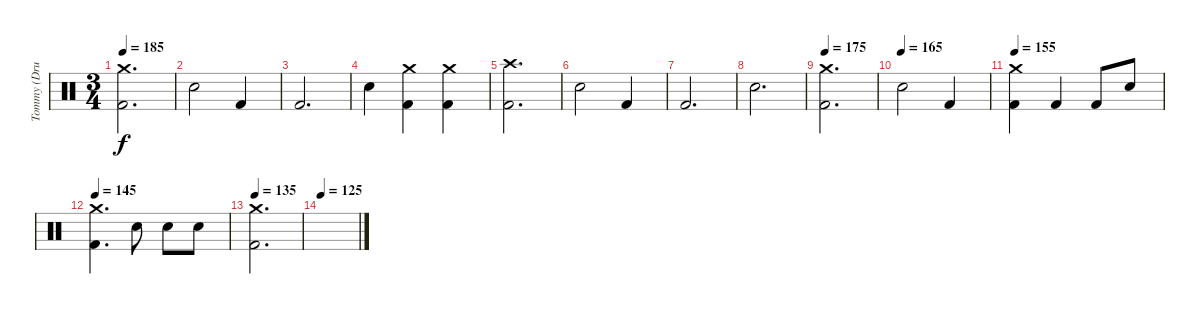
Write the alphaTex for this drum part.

\track ("Tommy (Drums)" "Tommy (Dru") {instrument percussion}
\staff {score}
\articulation defaults
\ts (3 4)
\tempo 185
\clef neutral
\ks c
("Crash medium (hit)" "Kick (hit) 2").2{d dy f} |
"Electric Snare (hit)".2 "Kick (hit) 2".4 |
"Kick (hit) 2".2{d} |
"Electric Snare (hit)".4 ("Crash medium (hit)" "Kick (hit) 2").4 ("Crash medium (hit)" "Kick (hit) 2").4 |
("Crash high (hit)" "Kick (hit) 2").2{d} |
"Electric Snare (hit)".2 "Kick (hit) 2".4 |
"Kick (hit) 2".2{d} |
"Electric Snare (hit)".2{d} |
\tempo 175
("Crash medium (hit)" "Kick (hit) 2").2{d} |
\tempo (165)
"Electric Snare (hit)".2 "Kick (hit) 2".4 |
\tempo 155
("Crash medium (hit)" "Kick (hit) 2").4 "Kick (hit) 2".4 "Kick (hit) 2".8 "Electric Snare (hit)".8 |
\tempo 145
("Crash medium (hit)" "Kick (hit) 2").4{d} "Electric Snare (hit)".8 "Electric Snare (hit)".8 "Electric Snare (hit)".8 |
\tempo 135
("Crash medium (hit)" "Kick (hit) 2").2{d} |
\tempo 125
